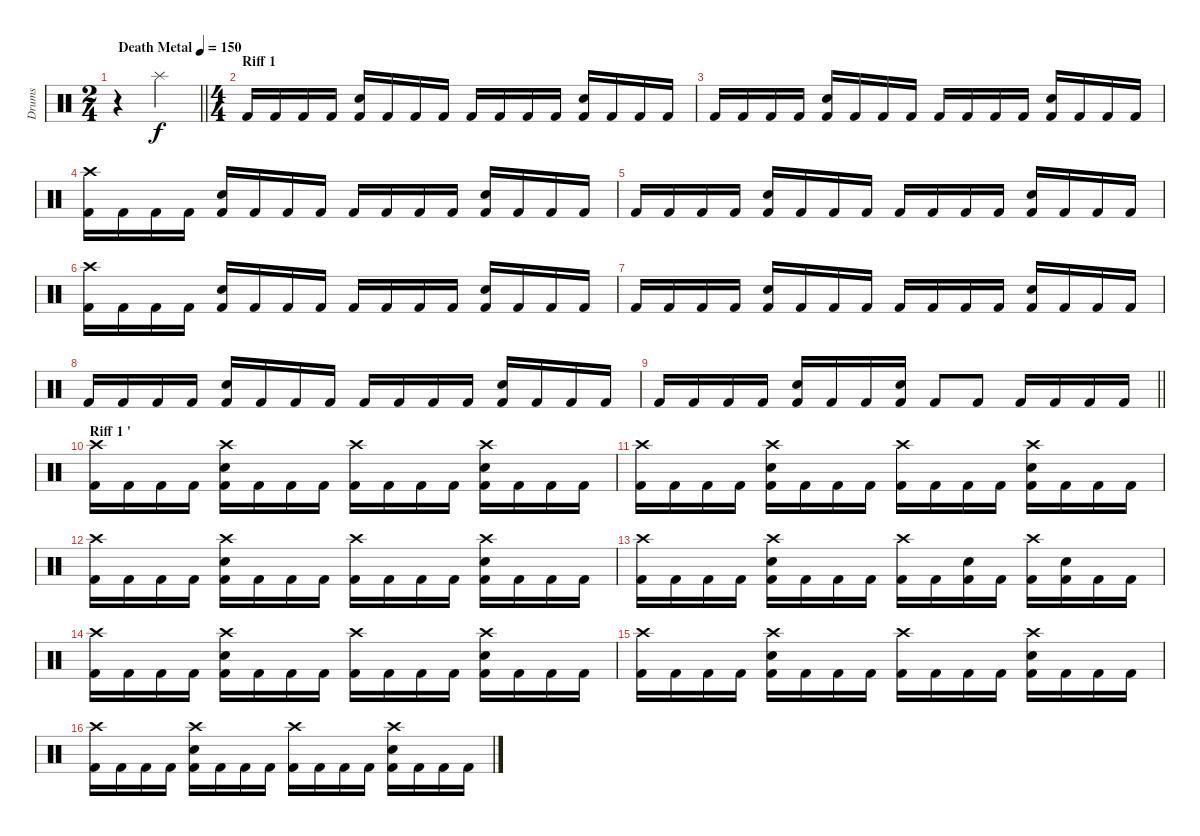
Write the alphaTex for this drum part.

\track ("Drums" "Drums") {instrument percussion}
\staff {score}
\articulation defaults
\ts (2 4)
\tempo (150 "Death Metal")
\clef neutral
\barLineRight lightlight
\ks c
r.4{dy f} "Splash (hit)".4 |
\ts (4 4)
\section ("" "Riff 1")
"Kick (hit) 2".16 "Kick (hit) 2".16 "Kick (hit) 2".16 "Kick (hit) 2".16 ("Snare (hit) 2" "Kick (hit) 2").16 "Kick (hit) 2".16 "Kick (hit) 2".16 "Kick (hit) 2".16 "Kick (hit) 2".16 "Kick (hit) 2".16 "Kick (hit) 2".16 "Kick (hit) 2".16 ("Snare (hit) 2" "Kick (hit) 2").16 "Kick (hit) 2".16 "Kick (hit) 2".16 "Kick (hit) 2".16 |
"Kick (hit) 2".16 "Kick (hit) 2".16 "Kick (hit) 2".16 "Kick (hit) 2".16 ("Snare (hit) 2" "Kick (hit) 2").16 "Kick (hit) 2".16 "Kick (hit) 2".16 "Kick (hit) 2".16 "Kick (hit) 2".16 "Kick (hit) 2".16 "Kick (hit) 2".16 "Kick (hit) 2".16 ("Snare (hit) 2" "Kick (hit) 2").16 "Kick (hit) 2".16 "Kick (hit) 2".16 "Kick (hit) 2".16 |
("Crash high (hit)" "Kick (hit) 2").16 "Kick (hit) 2".16 "Kick (hit) 2".16 "Kick (hit) 2".16 ("Snare (hit) 2" "Kick (hit) 2").16 "Kick (hit) 2".16 "Kick (hit) 2".16 "Kick (hit) 2".16 "Kick (hit) 2".16 "Kick (hit) 2".16 "Kick (hit) 2".16 "Kick (hit) 2".16 ("Snare (hit) 2" "Kick (hit) 2").16 "Kick (hit) 2".16 "Kick (hit) 2".16 "Kick (hit) 2".16 |
"Kick (hit) 2".16 "Kick (hit) 2".16 "Kick (hit) 2".16 "Kick (hit) 2".16 ("Snare (hit) 2" "Kick (hit) 2").16 "Kick (hit) 2".16 "Kick (hit) 2".16 "Kick (hit) 2".16 "Kick (hit) 2".16 "Kick (hit) 2".16 "Kick (hit) 2".16 "Kick (hit) 2".16 ("Snare (hit) 2" "Kick (hit) 2").16 "Kick (hit) 2".16 "Kick (hit) 2".16 "Kick (hit) 2".16 |
("Crash high (hit)" "Kick (hit) 2").16 "Kick (hit) 2".16 "Kick (hit) 2".16 "Kick (hit) 2".16 ("Snare (hit) 2" "Kick (hit) 2").16 "Kick (hit) 2".16 "Kick (hit) 2".16 "Kick (hit) 2".16 "Kick (hit) 2".16 "Kick (hit) 2".16 "Kick (hit) 2".16 "Kick (hit) 2".16 ("Snare (hit) 2" "Kick (hit) 2").16 "Kick (hit) 2".16 "Kick (hit) 2".16 "Kick (hit) 2".16 |
"Kick (hit) 2".16 "Kick (hit) 2".16 "Kick (hit) 2".16 "Kick (hit) 2".16 ("Snare (hit) 2" "Kick (hit) 2").16 "Kick (hit) 2".16 "Kick (hit) 2".16 "Kick (hit) 2".16 "Kick (hit) 2".16 "Kick (hit) 2".16 "Kick (hit) 2".16 "Kick (hit) 2".16 ("Snare (hit) 2" "Kick (hit) 2").16 "Kick (hit) 2".16 "Kick (hit) 2".16 "Kick (hit) 2".16 |
"Kick (hit) 2".16 "Kick (hit) 2".16 "Kick (hit) 2".16 "Kick (hit) 2".16 ("Snare (hit) 2" "Kick (hit) 2").16 "Kick (hit) 2".16 "Kick (hit) 2".16 "Kick (hit) 2".16 "Kick (hit) 2".16 "Kick (hit) 2".16 "Kick (hit) 2".16 "Kick (hit) 2".16 ("Snare (hit) 2" "Kick (hit) 2").16 "Kick (hit) 2".16 "Kick (hit) 2".16 "Kick (hit) 2".16 |
\barLineRight lightlight "Kick (hit) 2".16 "Kick (hit) 2".16 "Kick (hit) 2".16 "Kick (hit) 2".16
("Snare (hit) 2" "Kick (hit) 2").16 "Kick (hit) 2".16 "Kick (hit) 2".16 ("Snare (hit) 2" "Kick (hit) 2").16 "Kick (hit) 2".8 "Kick (hit) 2".8 "Kick (hit) 2".16 "Kick (hit) 2".16 "Kick (hit) 2".16 "Kick (hit) 2".16 |
\section ("" "Riff 1 '")
("Crash high (hit)" "Kick (hit) 2").16 "Kick (hit) 2".16 "Kick (hit) 2".16 "Kick (hit) 2".16 ("Crash high (hit)" "Snare (hit) 2" "Kick (hit) 2").16 "Kick (hit) 2".16 "Kick (hit) 2".16 "Kick (hit) 2".16 ("Crash high (hit)" "Kick (hit) 2").16 "Kick (hit) 2".16 "Kick (hit) 2".16 "Kick (hit) 2".16 ("Crash high (hit)" "Snare (hit) 2" "Kick (hit) 2").16 "Kick (hit) 2".16 "Kick (hit) 2".16 "Kick (hit) 2".16 |
("Crash high (hit)" "Kick (hit) 2").16 "Kick (hit) 2".16 "Kick (hit) 2".16 "Kick (hit) 2".16 ("Crash high (hit)" "Snare (hit) 2" "Kick (hit) 2").16 "Kick (hit) 2".16 "Kick (hit) 2".16 "Kick (hit) 2".16 ("Crash high (hit)" "Kick (hit) 2").16 "Kick (hit) 2".16 "Kick (hit) 2".16 "Kick (hit) 2".16 ("Crash high (hit)" "Snare (hit) 2" "Kick (hit) 2").16 "Kick (hit) 2".16 "Kick (hit) 2".16 "Kick (hit) 2".16 |
("Crash high (hit)" "Kick (hit) 2").16 "Kick (hit) 2".16 "Kick (hit) 2".16 "Kick (hit) 2".16 ("Crash high (hit)" "Snare (hit) 2" "Kick (hit) 2").16 "Kick (hit) 2".16 "Kick (hit) 2".16 "Kick (hit) 2".16 ("Crash high (hit)" "Kick (hit) 2").16 "Kick (hit) 2".16 "Kick (hit) 2".16 "Kick (hit) 2".16 ("Crash high (hit)" "Snare (hit) 2" "Kick (hit) 2").16 "Kick (hit) 2".16 "Kick (hit) 2".16 "Kick (hit) 2".16 |
("Crash high (hit)" "Kick (hit) 2").16 "Kick (hit) 2".16 "Kick (hit) 2".16 "Kick (hit) 2".16 ("Crash high (hit)" "Snare (hit) 2" "Kick (hit) 2").16 "Kick (hit) 2".16 "Kick (hit) 2".16 "Kick (hit) 2".16 ("Crash high (hit)" "Kick (hit) 2").16 "Kick (hit) 2".16 ("Snare (hit) 2" "Kick (hit) 2").16 "Kick (hit) 2".16 ("Crash high (hit)" "Kick (hit) 2").16 ("Snare (hit) 2" "Kick (hit) 2").16 "Kick (hit) 2".16 "Kick (hit) 2".16 |
("Crash high (hit)" "Kick (hit) 2").16 "Kick (hit) 2".16 "Kick (hit) 2".16 "Kick (hit) 2".16 ("Crash high (hit)" "Snare (hit) 2" "Kick (hit) 2").16 "Kick (hit) 2".16 "Kick (hit) 2".16 "Kick (hit) 2".16 ("Crash high (hit)" "Kick (hit) 2").16 "Kick (hit) 2".16 "Kick (hit) 2".16 "Kick (hit) 2".16 ("Crash high (hit)" "Snare (hit) 2" "Kick (hit) 2").16 "Kick (hit) 2".16 "Kick (hit) 2".16 "Kick (hit) 2".16 |
("Crash high (hit)" "Kick (hit) 2").16 "Kick (hit) 2".16 "Kick (hit) 2".16 "Kick (hit) 2".16 ("Crash high (hit)" "Snare (hit) 2" "Kick (hit) 2").16 "Kick (hit) 2".16 "Kick (hit) 2".16 "Kick (hit) 2".16 ("Crash high (hit)" "Kick (hit) 2").16 "Kick (hit) 2".16 "Kick (hit) 2".16 "Kick (hit) 2".16 ("Crash high (hit)" "Snare (hit) 2" "Kick (hit) 2").16 "Kick (hit) 2".16 "Kick (hit) 2".16 "Kick (hit) 2".16 |
("Crash high (hit)" "Kick (hit) 2").16 "Kick (hit) 2".16 "Kick (hit) 2".16 "Kick (hit) 2".16 ("Crash high (hit)" "Snare (hit) 2" "Kick (hit) 2").16 "Kick (hit) 2".16 "Kick (hit) 2".16 "Kick (hit) 2".16 ("Crash high (hit)" "Kick (hit) 2").16 "Kick (hit) 2".16 "Kick (hit) 2".16 "Kick (hit) 2".16 ("Crash high (hit)" "Snare (hit) 2" "Kick (hit) 2").16 "Kick (hit) 2".16 "Kick (hit) 2".16 "Kick (hit) 2".16
